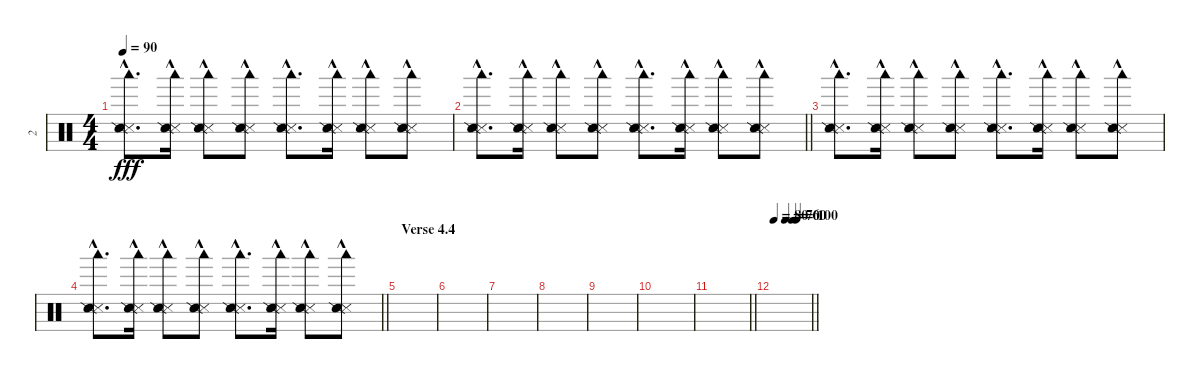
\track ("2" "2") {instrument percussion}
\staff {score}
\articulation defaults
\ts (4 4)
\tempo 90
\clef neutral
\ks c
("Snare (side stick) 3"{hac} "Snare (side stick) 2"{hac} "Woodblock low (hit)").8{d dy fff} ("Snare (side stick) 3"{hac} "Snare (side stick) 2"{hac} "Woodblock low (hit)").16 ("Snare (side stick) 3"{hac} "Snare (side stick) 2"{hac} "Woodblock low (hit)").8 ("Snare (side stick) 3"{hac} "Snare (side stick) 2"{hac} "Woodblock low (hit)").8 ("Snare (side stick) 3"{hac} "Snare (side stick) 2"{hac} "Woodblock low (hit)").8{d} ("Snare (side stick) 3"{hac} "Snare (side stick) 2"{hac} "Woodblock low (hit)").16 ("Snare (side stick) 3"{hac} "Snare (side stick) 2"{hac} "Woodblock low (hit)").8 ("Snare (side stick) 3"{hac} "Snare (side stick) 2"{hac} "Woodblock low (hit)").8 |
\barLineRight lightlight
("Snare (side stick) 3"{hac} "Snare (side stick) 2"{hac} "Woodblock low (hit)").8{d} ("Snare (side stick) 3"{hac} "Snare (side stick) 2"{hac} "Woodblock low (hit)").16 ("Snare (side stick) 3"{hac} "Snare (side stick) 2"{hac} "Woodblock low (hit)").8 ("Snare (side stick) 3"{hac} "Snare (side stick) 2"{hac} "Woodblock low (hit)").8 ("Snare (side stick) 3"{hac} "Snare (side stick) 2"{hac} "Woodblock low (hit)").8{d} ("Snare (side stick) 3"{hac} "Snare (side stick) 2"{hac} "Woodblock low (hit)").16 ("Snare (side stick) 3"{hac} "Snare (side stick) 2"{hac} "Woodblock low (hit)").8 ("Snare (side stick) 3"{hac} "Snare (side stick) 2"{hac} "Woodblock low (hit)").8 |
("Snare (side stick) 3"{hac} "Snare (side stick) 2"{hac} "Woodblock low (hit)").8{d} ("Snare (side stick) 3"{hac} "Snare (side stick) 2"{hac} "Woodblock low (hit)").16 ("Snare (side stick) 3"{hac} "Snare (side stick) 2"{hac} "Woodblock low (hit)").8 ("Snare (side stick) 3"{hac} "Snare (side stick) 2"{hac} "Woodblock low (hit)").8 ("Snare (side stick) 3"{hac} "Snare (side stick) 2"{hac} "Woodblock low (hit)").8{d} ("Snare (side stick) 3"{hac} "Snare (side stick) 2"{hac} "Woodblock low (hit)").16 ("Snare (side stick) 3"{hac} "Snare (side stick) 2"{hac} "Woodblock low (hit)").8 ("Snare (side stick) 3"{hac} "Snare (side stick) 2"{hac} "Woodblock low (hit)").8 |
\barLineRight lightlight
("Snare (side stick) 3"{hac} "Snare (side stick) 2"{hac} "Woodblock low (hit)").8{d} ("Snare (side stick) 3"{hac} "Snare (side stick) 2"{hac} "Woodblock low (hit)").16 ("Snare (side stick) 3"{hac} "Snare (side stick) 2"{hac} "Woodblock low (hit)").8 ("Snare (side stick) 3"{hac} "Snare (side stick) 2"{hac} "Woodblock low (hit)").8 ("Snare (side stick) 3"{hac} "Snare (side stick) 2"{hac} "Woodblock low (hit)").8{d} ("Snare (side stick) 3"{hac} "Snare (side stick) 2"{hac} "Woodblock low (hit)").16 ("Snare (side stick) 3"{hac} "Snare (side stick) 2"{hac} "Woodblock low (hit)").8 ("Snare (side stick) 3"{hac} "Snare (side stick) 2"{hac} "Woodblock low (hit)").8 |
\section ("" "Verse 4.4")
|
|
|
|
|
|
\barLineRight lightlight
|
\tempo 80
\tempo (70 0.3125)
\tempo (60 0.5)
\tempo (100 0.625)
\barLineRight lightlight
